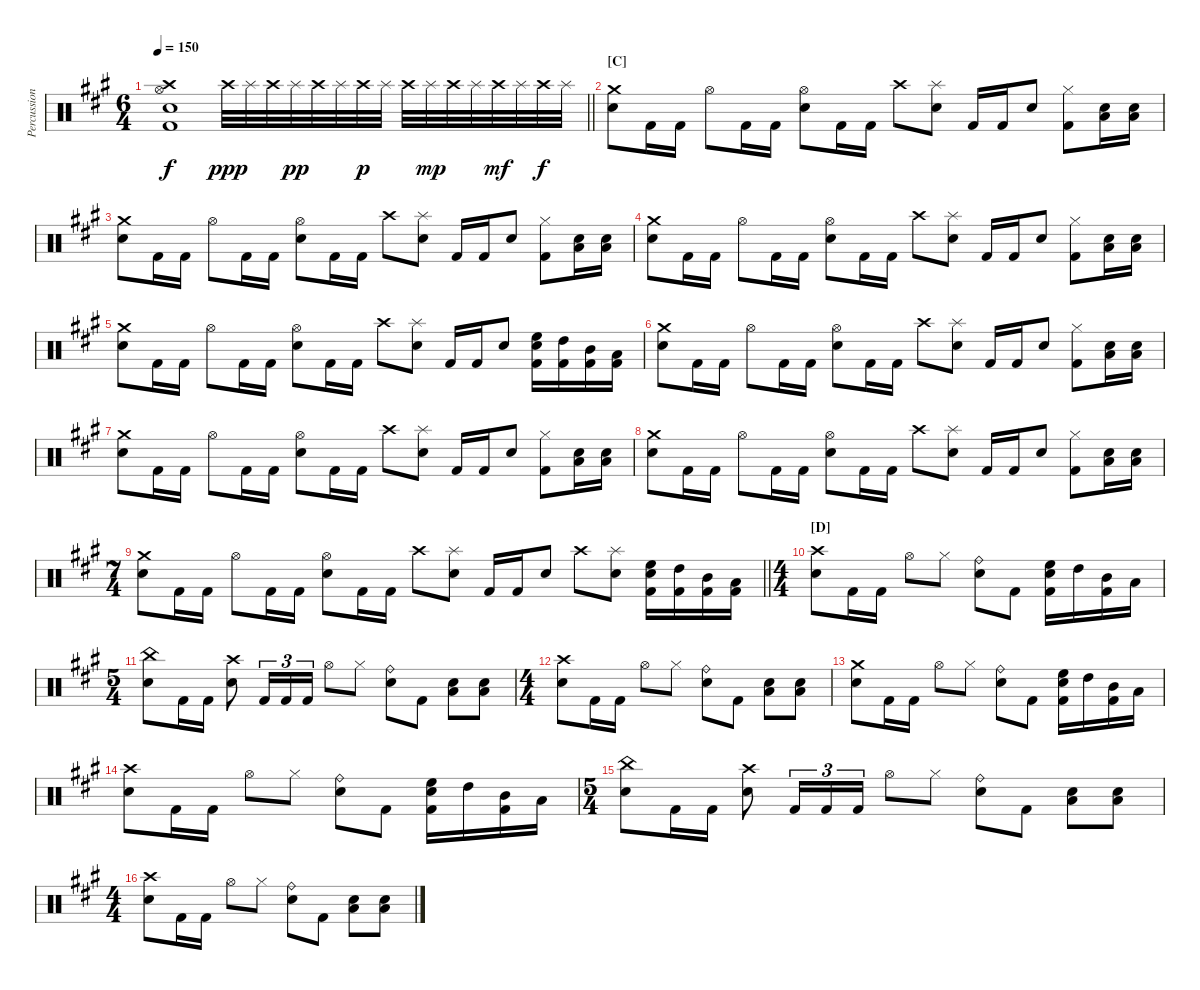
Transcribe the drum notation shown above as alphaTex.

\track ("Percussion" "Percussion") {instrument percussion}
\staff {score}
\articulation defaults
\ts (6 4)
\tempo 150
\clef neutral
\barLineRight lightlight
\ks f#minor
("Crash high (hit)" "Hi-Hat (open)" "Snare (hit) 2" "Kick (hit) 2").1{dy f} "Crash high (hit)".32{dy ppp} "Splash (hit)".32 "Crash high (hit)".32 "Splash (hit)".32{dy pp} "Crash high (hit)".32 "Splash (hit)".32 "Crash high (hit)".32{dy p} "Splash (hit)".32 "Crash high (hit)".32 "Splash (hit)".32{dy mp} "Crash high (hit)".32 "Splash (hit)".32 "Crash high (hit)".32{dy mf} "Splash (hit)".32 "Crash high (hit)".32{dy f} "Splash (hit)".32 |
\section ("" "[C]")
("Crash medium (hit)" "Snare (hit) 2").8 "Kick (hit) 2".16 "Kick (hit) 2".16 "Hi-Hat (open)".8 "Kick (hit) 2".16 "Kick (hit) 2".16 ("Hi-Hat (open)" "Snare (hit) 2").8 "Kick (hit) 2".16 "Kick (hit) 2".16 "Crash high (hit)".8 ("Splash (hit)" "Snare (hit) 2").8 "Kick (hit) 2".16 "Kick (hit) 2".16 "Snare (hit) 2".8 ("Hi-Hat (closed)" "Kick (hit) 2").8 ("Snare (hit) 2" "Low Floor Tom (hit)").16 ("Snare (hit) 2" "Low Floor Tom (hit)").16 |
("Crash medium (hit)" "Snare (hit) 2").8 "Kick (hit) 2".16 "Kick (hit) 2".16 "Hi-Hat (open)".8 "Kick (hit) 2".16 "Kick (hit) 2".16 ("Hi-Hat (open)" "Snare (hit) 2").8 "Kick (hit) 2".16 "Kick (hit) 2".16 "Crash high (hit)".8 ("Splash (hit)" "Snare (hit) 2").8 "Kick (hit) 2".16 "Kick (hit) 2".16 "Snare (hit) 2".8 ("Hi-Hat (closed)" "Kick (hit) 2").8 ("Snare (hit) 2" "Low Floor Tom (hit)").16 ("Snare (hit) 2" "Low Floor Tom (hit)").16 |
("Crash medium (hit)" "Snare (hit) 2").8 "Kick (hit) 2".16 "Kick (hit) 2".16 "Hi-Hat (open)".8 "Kick (hit) 2".16 "Kick (hit) 2".16 ("Hi-Hat (open)" "Snare (hit) 2").8 "Kick (hit) 2".16 "Kick (hit) 2".16 "Crash high (hit)".8 ("Splash (hit)" "Snare (hit) 2").8 "Kick (hit) 2".16 "Kick (hit) 2".16 "Snare (hit) 2".8 ("Hi-Hat (closed)" "Kick (hit) 2").8 ("Snare (hit) 2" "Low Floor Tom (hit)").16 ("Snare (hit) 2" "Low Floor Tom (hit)").16 |
("Crash medium (hit)" "Snare (hit) 2").8 "Kick (hit) 2".16 "Kick (hit) 2".16 "Hi-Hat (open)".8 "Kick (hit) 2".16 "Kick (hit) 2".16 ("Hi-Hat (open)" "Snare (hit) 2").8 "Kick (hit) 2".16 "Kick (hit) 2".16 "Crash high (hit)".8 ("Splash (hit)" "Snare (hit) 2").8 "Kick (hit) 2".16 "Kick (hit) 2".16 "Snare (hit) 2".8 ("High Floor Tom (hit)" "Snare (hit) 2" "Kick (hit) 2").16 ("High Tom (hit)" "Kick (hit) 2").16 ("Mid Tom (hit)" "Kick (hit) 2").16 ("Low Tom (hit)" "Kick (hit) 2").16 |
("Crash medium (hit)" "Snare (hit) 2").8 "Kick (hit) 2".16 "Kick (hit) 2".16 "Hi-Hat (open)".8 "Kick (hit) 2".16 "Kick (hit) 2".16 ("Hi-Hat (open)" "Snare (hit) 2").8 "Kick (hit) 2".16 "Kick (hit) 2".16 "Crash high (hit)".8 ("Splash (hit)" "Snare (hit) 2").8 "Kick (hit) 2".16 "Kick (hit) 2".16 "Snare (hit) 2".8 ("Hi-Hat (closed)" "Kick (hit) 2").8 ("Snare (hit) 2" "Low Floor Tom (hit)").16 ("Snare (hit) 2" "Low Floor Tom (hit)").16 |
("Crash medium (hit)" "Snare (hit) 2").8 "Kick (hit) 2".16 "Kick (hit) 2".16 "Hi-Hat (open)".8 "Kick (hit) 2".16 "Kick (hit) 2".16 ("Hi-Hat (open)" "Snare (hit) 2").8 "Kick (hit) 2".16 "Kick (hit) 2".16 "Crash high (hit)".8 ("Splash (hit)" "Snare (hit) 2").8 "Kick (hit) 2".16 "Kick (hit) 2".16 "Snare (hit) 2".8 ("Hi-Hat (closed)" "Kick (hit) 2").8 ("Snare (hit) 2" "Low Floor Tom (hit)").16 ("Snare (hit) 2" "Low Floor Tom (hit)").16 |
("Crash medium (hit)" "Snare (hit) 2").8 "Kick (hit) 2".16 "Kick (hit) 2".16 "Hi-Hat (open)".8 "Kick (hit) 2".16 "Kick (hit) 2".16 ("Hi-Hat (open)" "Snare (hit) 2").8 "Kick (hit) 2".16 "Kick (hit) 2".16 "Crash high (hit)".8 ("Splash (hit)" "Snare (hit) 2").8 "Kick (hit) 2".16 "Kick (hit) 2".16 "Snare (hit) 2".8 ("Hi-Hat (closed)" "Kick (hit) 2").8 ("Snare (hit) 2" "Low Floor Tom (hit)").16 ("Snare (hit) 2" "Low Floor Tom (hit)").16 |
\ts (7 4)
\barLineRight lightlight
("Crash medium (hit)" "Snare (hit) 2").8 "Kick (hit) 2".16 "Kick (hit) 2".16 "Hi-Hat (open)".8 "Kick (hit) 2".16 "Kick (hit) 2".16 ("Hi-Hat (open)" "Snare (hit) 2").8 "Kick (hit) 2".16 "Kick (hit) 2".16 "Crash high (hit)".8 ("Splash (hit)" "Snare (hit) 2").8 "Kick (hit) 2".16 "Kick (hit) 2".16 "Snare (hit) 2".8 "Crash high (hit)".8 ("Splash (hit)" "Snare (hit) 2").8 ("High Floor Tom (hit)" "Snare (hit) 2" "Kick (hit) 2").16 ("High Tom (hit)" "Kick (hit) 2").16 ("Mid Tom (hit)" "Kick (hit) 2").16 ("Low Tom (hit)" "Kick (hit) 2").16 |
\ts (4 4)
\section ("" "[D]")
("Crash high (hit)" "Snare (hit) 2").8 "Kick (hit) 2".16 "Kick (hit) 2".16 "Hi-Hat (open)".8 "Hi-Hat (closed)".8 ("Ride (bell)" "Snare (hit) 2").8 "Kick (hit) 2".8 ("High Floor Tom (hit)" "Snare (hit) 2" "Kick (hit) 2").16 "High Tom (hit)".16 ("Mid Tom (hit)" "Kick (hit) 2").16 "Low Tom (hit)".16 |
\ts (5 4)
("China (hit)" "Snare (hit) 2").8 "Kick (hit) 2".16 "Kick (hit) 2".16 ("Crash high (hit)" "Snare (hit) 2").8 "Kick (hit) 2".16{tu (3 2)} "Kick (hit) 2".16{tu (3 2)} "Kick (hit) 2".16{tu (3 2)} "Hi-Hat (open)".8 "Hi-Hat (closed)".8 ("Ride (bell)" "Snare (hit) 2").8 "Kick (hit) 2".8 ("Snare (hit) 2" "Low Floor Tom (hit)").8 ("Snare (hit) 2" "Low Floor Tom (hit)").8 |
\ts (4 4)
("Crash high (hit)" "Snare (hit) 2").8 "Kick (hit) 2".16 "Kick (hit) 2".16 "Hi-Hat (open)".8 "Hi-Hat (closed)".8 ("Ride (bell)" "Snare (hit) 2").8 "Kick (hit) 2".8 ("Snare (hit) 2" "Low Floor Tom (hit)").8 ("Snare (hit) 2" "Low Floor Tom (hit)").8 |
("Crash medium (hit)" "Snare (hit) 2").8 "Kick (hit) 2".16 "Kick (hit) 2".16 "Hi-Hat (open)".8 "Hi-Hat (closed)".8 ("Ride (bell)" "Snare (hit) 2").8 "Kick (hit) 2".8 ("High Floor Tom (hit)" "Snare (hit) 2" "Kick (hit) 2").16 "High Tom (hit)".16 ("Mid Tom (hit)" "Kick (hit) 2").16 "Low Tom (hit)".16 |
("Crash high (hit)" "Snare (hit) 2").8 "Kick (hit) 2".16 "Kick (hit) 2".16 "Hi-Hat (open)".8 "Hi-Hat (closed)".8 ("Ride (bell)" "Snare (hit) 2").8 "Kick (hit) 2".8 ("High Floor Tom (hit)" "Snare (hit) 2" "Kick (hit) 2").16 "High Tom (hit)".16 ("Mid Tom (hit)" "Kick (hit) 2").16 "Low Tom (hit)".16 |
\ts (5 4)
("China (hit)" "Snare (hit) 2").8 "Kick (hit) 2".16 "Kick (hit) 2".16 ("Crash high (hit)" "Snare (hit) 2").8 "Kick (hit) 2".16{tu (3 2)} "Kick (hit) 2".16{tu (3 2)} "Kick (hit) 2".16{tu (3 2)} "Hi-Hat (open)".8 "Hi-Hat (closed)".8 ("Ride (bell)" "Snare (hit) 2").8 "Kick (hit) 2".8 ("Snare (hit) 2" "Low Floor Tom (hit)").8 ("Snare (hit) 2" "Low Floor Tom (hit)").8 |
\ts (4 4)
("Crash high (hit)" "Snare (hit) 2").8 "Kick (hit) 2".16 "Kick (hit) 2".16 "Hi-Hat (open)".8 "Hi-Hat (closed)".8 ("Ride (bell)" "Snare (hit) 2").8 "Kick (hit) 2".8 ("Snare (hit) 2" "Low Floor Tom (hit)").8 ("Snare (hit) 2" "Low Floor Tom (hit)").8
